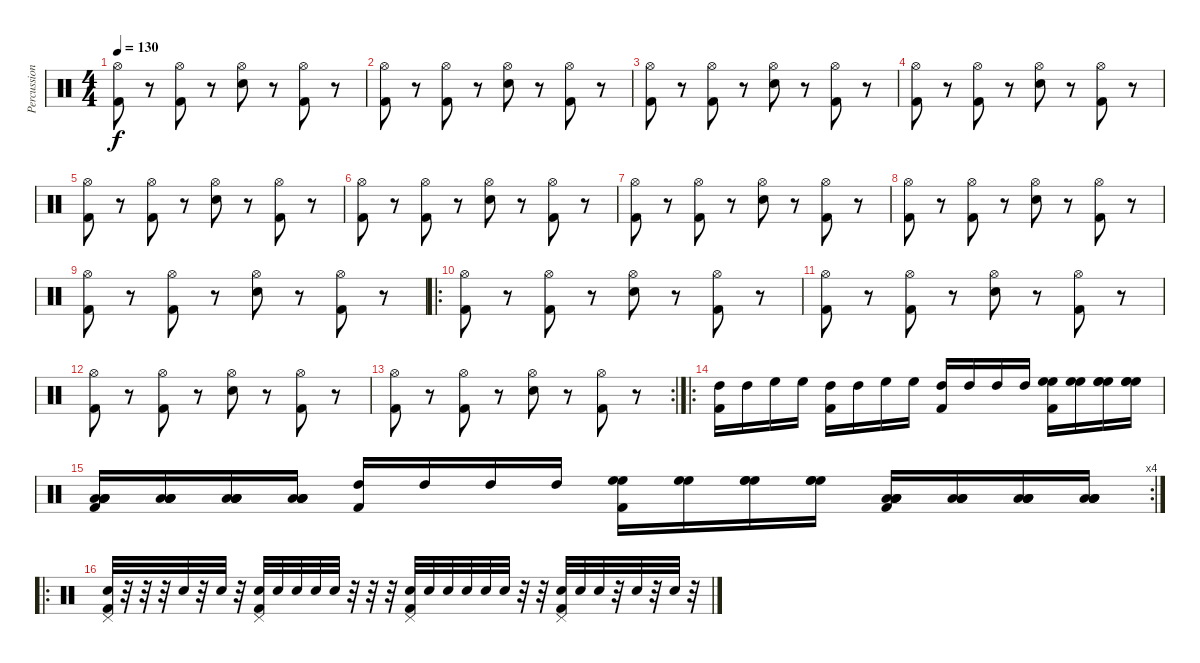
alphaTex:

\track ("Percussion" "Percussion") {instrument percussion}
\staff {score}
\articulation defaults
\ts (4 4)
\tempo 130
\clef neutral
\ks c
("Hi-Hat (open)" "Kick (hit) 2").8{dy f} r.8 ("Hi-Hat (open)" "Kick (hit) 2").8 r.8 ("Hi-Hat (open)" "Snare (hit) 2").8 r.8 ("Hi-Hat (open)" "Kick (hit) 2").8 r.8 |
("Hi-Hat (open)" "Kick (hit) 2").8 r.8 ("Hi-Hat (open)" "Kick (hit) 2").8 r.8 ("Hi-Hat (open)" "Snare (hit) 2").8 r.8 ("Hi-Hat (open)" "Kick (hit) 2").8 r.8 |
("Hi-Hat (open)" "Kick (hit) 2").8 r.8 ("Hi-Hat (open)" "Kick (hit) 2").8 r.8 ("Hi-Hat (open)" "Snare (hit) 2").8 r.8 ("Hi-Hat (open)" "Kick (hit) 2").8 r.8 |
("Hi-Hat (open)" "Kick (hit) 2").8 r.8 ("Hi-Hat (open)" "Kick (hit) 2").8 r.8 ("Hi-Hat (open)" "Snare (hit) 2").8 r.8 ("Hi-Hat (open)" "Kick (hit) 2").8 r.8 |
("Hi-Hat (open)" "Kick (hit) 2").8 r.8 ("Hi-Hat (open)" "Kick (hit) 2").8 r.8 ("Hi-Hat (open)" "Snare (hit) 2").8 r.8 ("Hi-Hat (open)" "Kick (hit) 2").8 r.8 |
("Hi-Hat (open)" "Kick (hit) 2").8 r.8 ("Hi-Hat (open)" "Kick (hit) 2").8 r.8 ("Hi-Hat (open)" "Snare (hit) 2").8 r.8 ("Hi-Hat (open)" "Kick (hit) 2").8 r.8 |
("Hi-Hat (open)" "Kick (hit) 2").8 r.8 ("Hi-Hat (open)" "Kick (hit) 2").8 r.8 ("Hi-Hat (open)" "Snare (hit) 2").8 r.8 ("Hi-Hat (open)" "Kick (hit) 2").8 r.8 |
("Hi-Hat (open)" "Kick (hit) 2").8 r.8 ("Hi-Hat (open)" "Kick (hit) 2").8 r.8 ("Hi-Hat (open)" "Snare (hit) 2").8 r.8 ("Hi-Hat (open)" "Kick (hit) 2").8 r.8 |
("Hi-Hat (open)" "Kick (hit) 2").8 r.8 ("Hi-Hat (open)" "Kick (hit) 2").8 r.8 ("Hi-Hat (open)" "Snare (hit) 2").8 r.8 ("Hi-Hat (open)" "Kick (hit) 2").8 r.8 |
\ro
("Hi-Hat (open)" "Kick (hit) 2").8 r.8 ("Hi-Hat (open)" "Kick (hit) 2").8 r.8 ("Hi-Hat (open)" "Snare (hit) 2").8 r.8 ("Hi-Hat (open)" "Kick (hit) 2").8 r.8 |
("Hi-Hat (open)" "Kick (hit) 2").8 r.8 ("Hi-Hat (open)" "Kick (hit) 2").8 r.8 ("Hi-Hat (open)" "Snare (hit) 2").8 r.8 ("Hi-Hat (open)" "Kick (hit) 2").8 r.8 |
("Hi-Hat (open)" "Kick (hit) 2").8 r.8 ("Hi-Hat (open)" "Kick (hit) 2").8 r.8 ("Hi-Hat (open)" "Snare (hit) 2").8 r.8 ("Hi-Hat (open)" "Kick (hit) 2").8 r.8 |
\rc 2
("Hi-Hat (open)" "Kick (hit) 2").8 r.8 ("Hi-Hat (open)" "Kick (hit) 2").8 r.8 ("Hi-Hat (open)" "Snare (hit) 2").8 r.8 ("Hi-Hat (open)" "Kick (hit) 2").8 r.8 |
\ro
("Kick (hit) 2" "High Tom (hit)").16 "High Tom (hit)".16 "High Floor Tom (hit)".16 "High Floor Tom (hit)".16 ("Kick (hit) 2" "High Tom (hit)").16 "High Tom (hit)".16 "High Floor Tom (hit)".16 "High Floor Tom (hit)".16 ("Kick (hit) 2" "High Tom (hit)").16 "High Tom (hit)".16 "High Tom (hit)".16 "High Tom (hit)".16 ("Kick (hit) 2" "High Floor Tom (hit)" "High Floor Tom (hit)").16 ("High Floor Tom (hit)" "High Floor Tom (hit)").16 ("High Floor Tom (hit)" "High Floor Tom (hit)" "High Floor Tom (hit)").16 ("High Floor Tom (hit)" "High Floor Tom (hit)" "High Floor Tom (hit)").16 |
\rc 4
("Low Floor Tom (hit)" "Low Floor Tom (hit)" "Low Floor Tom (hit)" "Low Floor Tom (hit)" "Kick (hit) 2").16 ("Low Floor Tom (hit)" "Low Floor Tom (hit)" "Low Floor Tom (hit)" "Low Floor Tom (hit)").16 ("Low Floor Tom (hit)" "Low Floor Tom (hit)" "Low Floor Tom (hit)" "Low Floor Tom (hit)").16 ("Low Floor Tom (hit)" "Low Floor Tom (hit)" "Low Floor Tom (hit)" "Low Floor Tom (hit)").16 ("High Tom (hit)" "Kick (hit) 2").16 "High Tom (hit)".16 "High Tom (hit)".16 "High Tom (hit)".16 ("High Floor Tom (hit)" "High Floor Tom (hit)" "Kick (hit) 2").16 ("High Floor Tom (hit)" "High Floor Tom (hit)").16 ("High Floor Tom (hit)" "High Floor Tom (hit)" "High Floor Tom (hit)").16 ("High Floor Tom (hit)" "High Floor Tom (hit)" "High Floor Tom (hit)").16 ("Low Floor Tom (hit)" "Low Floor Tom (hit)" "Low Floor Tom (hit)" "Low Floor Tom (hit)" "Kick (hit) 2").16 ("Low Floor Tom (hit)" "Low Floor Tom (hit)" "Low Floor Tom (hit)" "Low Floor Tom (hit)").16 ("Low Floor Tom (hit)" "Low Floor Tom (hit)" "Low Floor Tom (hit)" "Low Floor Tom (hit)").16 ("Low Floor Tom (hit)" "Low Floor Tom (hit)" "Low Floor Tom (hit)" "Low Floor Tom (hit)").16 |
\ro
("Snare (hit) 2" "Pedal Hi-Hat (hit)" "Kick (hit) 2").32 r.32 r.32 r.32 "Snare (hit) 2".32 r.32 "Snare (hit) 2".32 r.32 ("Snare (hit) 2" "Pedal Hi-Hat (hit)" "Kick (hit) 2").32 "Snare (hit) 2".32 "Snare (hit) 2".32 "Snare (hit) 2".32 "Snare (hit) 2".32 r.32 r.32 r.32 ("Snare (hit) 2" "Pedal Hi-Hat (hit)" "Kick (hit) 2").32 "Snare (hit) 2".32 "Snare (hit) 2".32 "Snare (hit) 2".32 "Snare (hit) 2".32 "Snare (hit) 2".32 r.32 r.32 ("Snare (hit) 2" "Pedal Hi-Hat (hit)" "Kick (hit) 2").32 "Snare (hit) 2".32 "Snare (hit) 2".32 r.32 "Snare (hit) 2".32 r.32 "Snare (hit) 2".32 r.32
